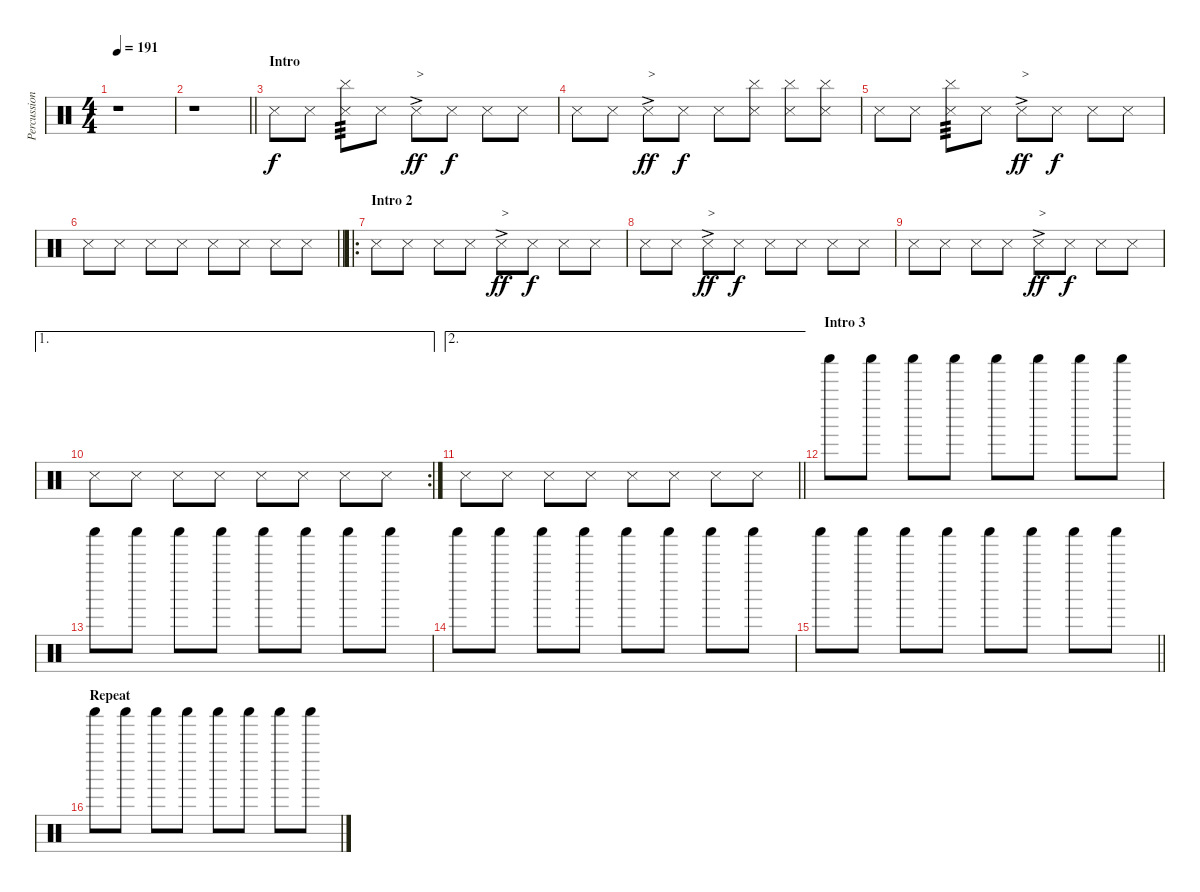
\track ("Percussion" "Percussion") {instrument percussion}
\staff {score}
\articulation defaults
\ts (4 4)
\tempo 191
\clef neutral
\ks c
r.1{dy f} |
\barLineRight lightlight
r.1 |
\section ("" "Intro")
"Snare (side stick) 3".8 "Snare (side stick) 3".8 ("Cymbal (hit)" "Snare (side stick) 3").8{tp 3} "Snare (side stick) 3".8 "Snare (side stick) 3"{ac}.8{txt ">" dy ff} "Snare (side stick) 3".8{dy f} "Snare (side stick) 3".8 "Snare (side stick) 3".8 |
"Snare (side stick) 3".8 "Snare (side stick) 3".8 "Snare (side stick) 3"{ac}.8{txt ">" dy ff} "Snare (side stick) 3".8{dy f} "Snare (side stick) 3".8 ("Cymbal (hit)" "Snare (side stick) 3").8 ("Cymbal (hit)" "Snare (side stick) 3").8 ("Cymbal (hit)" "Snare (side stick) 3").8 |
"Snare (side stick) 3".8 "Snare (side stick) 3".8 ("Cymbal (hit)" "Snare (side stick) 3").8{tp 3} "Snare (side stick) 3".8 "Snare (side stick) 3"{ac}.8{txt ">" dy ff} "Snare (side stick) 3".8{dy f} "Snare (side stick) 3".8 "Snare (side stick) 3".8 |
\barLineRight lightlight "Snare (side stick) 3".8 "Snare (side stick) 3".8 "Snare (side stick) 3".8 "Snare (side stick) 3".8 "Snare (side stick) 3".8 "Snare (side stick) 3".8 "Snare (side stick) 3".8 "Snare (side stick) 3".8
|
\ro
\section ("" "Intro 2")
"Snare (side stick) 3".8 "Snare (side stick) 3".8 "Snare (side stick) 3".8 "Snare (side stick) 3".8 "Snare (side stick) 3"{ac}.8{txt ">" dy ff} "Snare (side stick) 3".8{dy f} "Snare (side stick) 3".8 "Snare (side stick) 3".8 |
"Snare (side stick) 3".8 "Snare (side stick) 3".8 "Snare (side stick) 3"{ac}.8{txt ">" dy ff} "Snare (side stick) 3".8{dy f} "Snare (side stick) 3".8 "Snare (side stick) 3".8 "Snare (side stick) 3".8 "Snare (side stick) 3".8 |
"Snare (side stick) 3".8 "Snare (side stick) 3".8 "Snare (side stick) 3".8 "Snare (side stick) 3".8 "Snare (side stick) 3"{ac}.8{txt ">" dy ff} "Snare (side stick) 3".8{dy f} "Snare (side stick) 3".8 "Snare (side stick) 3".8 |
\ae 1
\rc 2 "Snare (side stick) 3".8 "Snare (side stick) 3".8 "Snare (side stick) 3".8 "Snare (side stick) 3".8 "Snare (side stick) 3".8 "Snare (side stick) 3".8 "Snare (side stick) 3".8 "Snare (side stick) 3".8
|
\ae 2
\barLineRight lightlight "Snare (side stick) 3".8 "Snare (side stick) 3".8 "Snare (side stick) 3".8 "Snare (side stick) 3".8 "Snare (side stick) 3".8 "Snare (side stick) 3".8 "Snare (side stick) 3".8 "Snare (side stick) 3".8
|
\section ("" "Intro 3")
"Shaker (hit)".8 "Shaker (hit)".8 "Shaker (hit)".8 "Shaker (hit)".8 "Shaker (hit)".8 "Shaker (hit)".8 "Shaker (hit)".8 "Shaker (hit)".8 |
"Shaker (hit)".8 "Shaker (hit)".8 "Shaker (hit)".8 "Shaker (hit)".8 "Shaker (hit)".8 "Shaker (hit)".8 "Shaker (hit)".8 "Shaker (hit)".8 |
"Shaker (hit)".8 "Shaker (hit)".8 "Shaker (hit)".8 "Shaker (hit)".8 "Shaker (hit)".8 "Shaker (hit)".8 "Shaker (hit)".8 "Shaker (hit)".8 |
\barLineRight lightlight "Shaker (hit)".8 "Shaker (hit)".8 "Shaker (hit)".8 "Shaker (hit)".8 "Shaker (hit)".8 "Shaker (hit)".8 "Shaker (hit)".8 "Shaker (hit)".8
|
\section ("" "Repeat")
"Shaker (hit)".8 "Shaker (hit)".8 "Shaker (hit)".8 "Shaker (hit)".8 "Shaker (hit)".8 "Shaker (hit)".8 "Shaker (hit)".8 "Shaker (hit)".8
